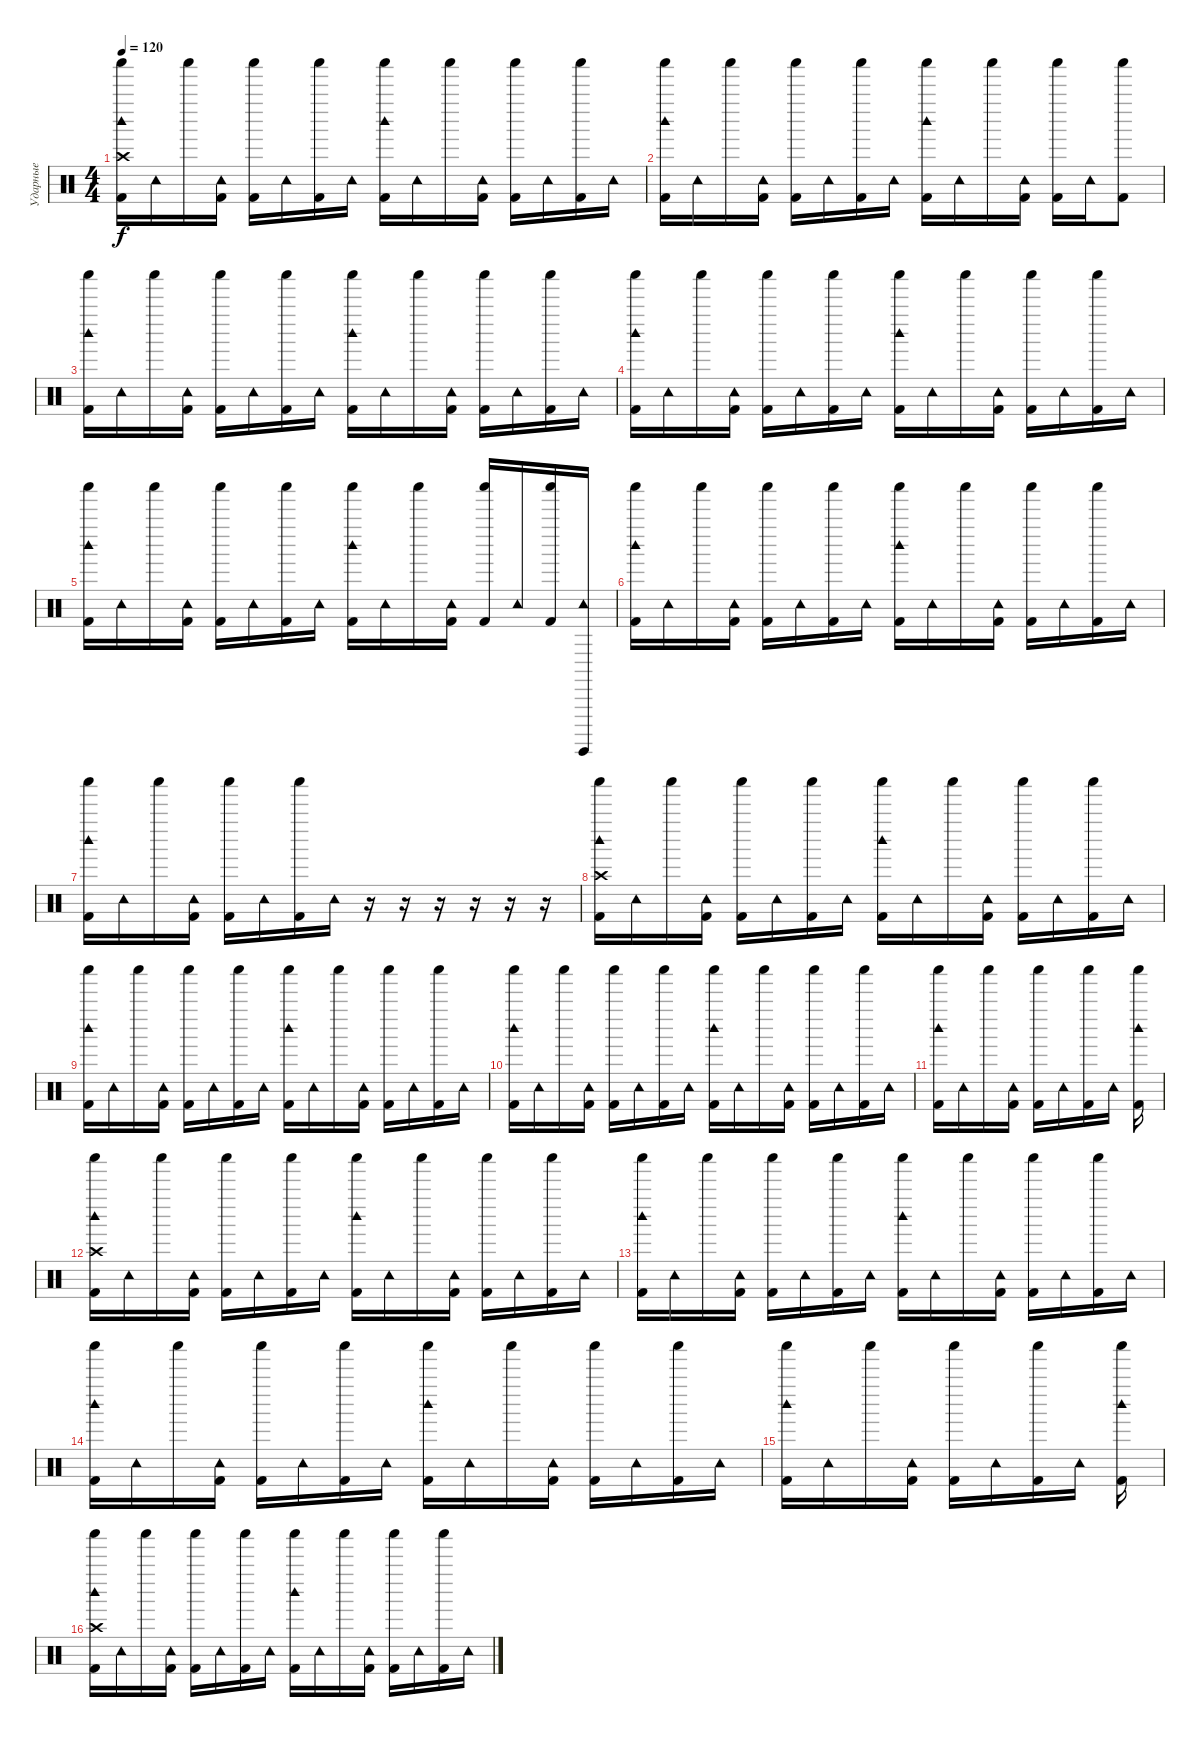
\track ("Ударные" "Ударные") {instrument percussion}
\staff {score}
\articulation defaults
\ts (4 4)
\tempo 120
\clef neutral
\ks c
("Shaker (hit)" "Kick (hit) 2" "Woodblock high (hit)" "Crash high (hit)").16{dy f} "Tambourine (hit)".16 "Shaker (hit)".16 ("Tambourine (hit)" "Kick (hit) 2").16 ("Shaker (hit)" "Kick (hit) 2").16 "Tambourine (hit)".16 ("Shaker (hit)" "Kick (hit) 2").16 "Tambourine (hit)".16 ("Shaker (hit)" "Kick (hit) 2" "Woodblock high (hit)").16 "Tambourine (hit)".16 "Shaker (hit)".16 ("Tambourine (hit)" "Kick (hit) 2").16 ("Shaker (hit)" "Kick (hit) 2").16 "Tambourine (hit)".16 ("Shaker (hit)" "Kick (hit) 2").16 "Tambourine (hit)".16 |
("Shaker (hit)" "Kick (hit) 2" "Woodblock high (hit)").16 "Tambourine (hit)".16 "Shaker (hit)".16 ("Tambourine (hit)" "Kick (hit) 2").16 ("Shaker (hit)" "Kick (hit) 2").16 "Tambourine (hit)".16 ("Shaker (hit)" "Kick (hit) 2").16 "Tambourine (hit)".16 ("Shaker (hit)" "Kick (hit) 2" "Woodblock high (hit)").16 "Tambourine (hit)".16 "Shaker (hit)".16 ("Tambourine (hit)" "Kick (hit) 2").16 ("Shaker (hit)" "Kick (hit) 2").16 "Tambourine (hit)".16 ("Shaker (hit)" "Kick (hit) 2").8 |
("Shaker (hit)" "Kick (hit) 2" "Woodblock high (hit)").16 "Tambourine (hit)".16 "Shaker (hit)".16 ("Tambourine (hit)" "Kick (hit) 2").16 ("Shaker (hit)" "Kick (hit) 2").16 "Tambourine (hit)".16 ("Shaker (hit)" "Kick (hit) 2").16 "Tambourine (hit)".16 ("Shaker (hit)" "Kick (hit) 2" "Woodblock high (hit)").16 "Tambourine (hit)".16 "Shaker (hit)".16 ("Tambourine (hit)" "Kick (hit) 2").16 ("Shaker (hit)" "Kick (hit) 2").16 "Tambourine (hit)".16 ("Shaker (hit)" "Kick (hit) 2").16 "Tambourine (hit)".16 |
("Shaker (hit)" "Kick (hit) 2" "Woodblock high (hit)").16 "Tambourine (hit)".16 "Shaker (hit)".16 ("Tambourine (hit)" "Kick (hit) 2").16 ("Shaker (hit)" "Kick (hit) 2").16 "Tambourine (hit)".16 ("Shaker (hit)" "Kick (hit) 2").16 "Tambourine (hit)".16 ("Shaker (hit)" "Kick (hit) 2" "Woodblock high (hit)").16 "Tambourine (hit)".16 "Shaker (hit)".16 ("Tambourine (hit)" "Kick (hit) 2").16 ("Shaker (hit)" "Kick (hit) 2").16 "Tambourine (hit)".16 ("Shaker (hit)" "Kick (hit) 2").16 "Tambourine (hit)".16 |
("Shaker (hit)" "Kick (hit) 2" "Woodblock high (hit)").16 "Tambourine (hit)".16 "Shaker (hit)".16 ("Tambourine (hit)" "Kick (hit) 2").16 ("Shaker (hit)" "Kick (hit) 2").16 "Tambourine (hit)".16 ("Shaker (hit)" "Kick (hit) 2").16 "Tambourine (hit)".16 ("Shaker (hit)" "Kick (hit) 2" "Woodblock high (hit)").16 "Tambourine (hit)".16 "Shaker (hit)".16 ("Tambourine (hit)" "Kick (hit) 2").16 ("Shaker (hit)" "Kick (hit) 2").16 "Tambourine (hit)".16 ("Shaker (hit)" "Kick (hit) 2").16 ("Tambourine (hit)" "Surdo (hit)").16 |
("Shaker (hit)" "Kick (hit) 2" "Woodblock high (hit)").16 "Tambourine (hit)".16 "Shaker (hit)".16 ("Tambourine (hit)" "Kick (hit) 2").16 ("Shaker (hit)" "Kick (hit) 2").16 "Tambourine (hit)".16 ("Shaker (hit)" "Kick (hit) 2").16 "Tambourine (hit)".16 ("Shaker (hit)" "Kick (hit) 2" "Woodblock high (hit)").16 "Tambourine (hit)".16 "Shaker (hit)".16 ("Tambourine (hit)" "Kick (hit) 2").16 ("Shaker (hit)" "Kick (hit) 2").16 "Tambourine (hit)".16 ("Shaker (hit)" "Kick (hit) 2").16 "Tambourine (hit)".16 |
("Shaker (hit)" "Kick (hit) 2" "Woodblock high (hit)").16 "Tambourine (hit)".16 "Shaker (hit)".16 ("Tambourine (hit)" "Kick (hit) 2").16 ("Shaker (hit)" "Kick (hit) 2").16 "Tambourine (hit)".16 ("Shaker (hit)" "Kick (hit) 2").16 "Tambourine (hit)".16 r.16 r.16 r.16 r.16 r.16 r.16 |
("Shaker (hit)" "Kick (hit) 2" "Woodblock high (hit)" "Crash high (hit)").16 "Tambourine (hit)".16 "Shaker (hit)".16 ("Tambourine (hit)" "Kick (hit) 2").16 ("Shaker (hit)" "Kick (hit) 2").16 "Tambourine (hit)".16 ("Shaker (hit)" "Kick (hit) 2").16 "Tambourine (hit)".16 ("Shaker (hit)" "Kick (hit) 2" "Woodblock high (hit)").16 "Tambourine (hit)".16 "Shaker (hit)".16 ("Tambourine (hit)" "Kick (hit) 2").16 ("Shaker (hit)" "Kick (hit) 2").16 "Tambourine (hit)".16 ("Shaker (hit)" "Kick (hit) 2").16 "Tambourine (hit)".16 |
("Shaker (hit)" "Kick (hit) 2" "Woodblock high (hit)").16 "Tambourine (hit)".16 "Shaker (hit)".16 ("Tambourine (hit)" "Kick (hit) 2").16 ("Shaker (hit)" "Kick (hit) 2").16 "Tambourine (hit)".16 ("Shaker (hit)" "Kick (hit) 2").16 "Tambourine (hit)".16 ("Shaker (hit)" "Kick (hit) 2" "Woodblock high (hit)").16 "Tambourine (hit)".16 "Shaker (hit)".16 ("Tambourine (hit)" "Kick (hit) 2").16 ("Shaker (hit)" "Kick (hit) 2").16 "Tambourine (hit)".16 ("Shaker (hit)" "Kick (hit) 2").16 "Tambourine (hit)".16 |
("Shaker (hit)" "Kick (hit) 2" "Woodblock high (hit)").16 "Tambourine (hit)".16 "Shaker (hit)".16 ("Tambourine (hit)" "Kick (hit) 2").16 ("Shaker (hit)" "Kick (hit) 2").16 "Tambourine (hit)".16 ("Shaker (hit)" "Kick (hit) 2").16 "Tambourine (hit)".16 ("Shaker (hit)" "Kick (hit) 2" "Woodblock high (hit)").16 "Tambourine (hit)".16 "Shaker (hit)".16 ("Tambourine (hit)" "Kick (hit) 2").16 ("Shaker (hit)" "Kick (hit) 2").16 "Tambourine (hit)".16 ("Shaker (hit)" "Kick (hit) 2").16 "Tambourine (hit)".16 |
("Shaker (hit)" "Kick (hit) 2" "Woodblock high (hit)").16 "Tambourine (hit)".16 "Shaker (hit)".16 ("Tambourine (hit)" "Kick (hit) 2").16 ("Shaker (hit)" "Kick (hit) 2").16 "Tambourine (hit)".16 ("Shaker (hit)" "Kick (hit) 2").16 "Tambourine (hit)".16 ("Shaker (hit)" "Kick (hit) 2" "Woodblock high (hit)").16 |
("Shaker (hit)" "Kick (hit) 2" "Woodblock high (hit)" "Crash high (hit)").16 "Tambourine (hit)".16 "Shaker (hit)".16 ("Tambourine (hit)" "Kick (hit) 2").16 ("Shaker (hit)" "Kick (hit) 2").16 "Tambourine (hit)".16 ("Shaker (hit)" "Kick (hit) 2").16 "Tambourine (hit)".16 ("Shaker (hit)" "Kick (hit) 2" "Woodblock high (hit)").16 "Tambourine (hit)".16 "Shaker (hit)".16 ("Tambourine (hit)" "Kick (hit) 2").16 ("Shaker (hit)" "Kick (hit) 2").16 "Tambourine (hit)".16 ("Shaker (hit)" "Kick (hit) 2").16 "Tambourine (hit)".16 |
("Shaker (hit)" "Kick (hit) 2" "Woodblock high (hit)").16 "Tambourine (hit)".16 "Shaker (hit)".16 ("Tambourine (hit)" "Kick (hit) 2").16 ("Shaker (hit)" "Kick (hit) 2").16 "Tambourine (hit)".16 ("Shaker (hit)" "Kick (hit) 2").16 "Tambourine (hit)".16 ("Shaker (hit)" "Kick (hit) 2" "Woodblock high (hit)").16 "Tambourine (hit)".16 "Shaker (hit)".16 ("Tambourine (hit)" "Kick (hit) 2").16 ("Shaker (hit)" "Kick (hit) 2").16 "Tambourine (hit)".16 ("Shaker (hit)" "Kick (hit) 2").16 "Tambourine (hit)".16 |
("Shaker (hit)" "Kick (hit) 2" "Woodblock high (hit)").16 "Tambourine (hit)".16 "Shaker (hit)".16 ("Tambourine (hit)" "Kick (hit) 2").16 ("Shaker (hit)" "Kick (hit) 2").16 "Tambourine (hit)".16 ("Shaker (hit)" "Kick (hit) 2").16 "Tambourine (hit)".16 ("Shaker (hit)" "Kick (hit) 2" "Woodblock high (hit)").16 "Tambourine (hit)".16 "Shaker (hit)".16 ("Tambourine (hit)" "Kick (hit) 2").16 ("Shaker (hit)" "Kick (hit) 2").16 "Tambourine (hit)".16 ("Shaker (hit)" "Kick (hit) 2").16 "Tambourine (hit)".16 |
("Shaker (hit)" "Kick (hit) 2" "Woodblock high (hit)").16 "Tambourine (hit)".16 "Shaker (hit)".16 ("Tambourine (hit)" "Kick (hit) 2").16 ("Shaker (hit)" "Kick (hit) 2").16 "Tambourine (hit)".16 ("Shaker (hit)" "Kick (hit) 2").16 "Tambourine (hit)".16 ("Shaker (hit)" "Kick (hit) 2" "Woodblock high (hit)").16 |
("Shaker (hit)" "Kick (hit) 2" "Woodblock high (hit)" "Crash high (hit)").16 "Tambourine (hit)".16 "Shaker (hit)".16 ("Tambourine (hit)" "Kick (hit) 2").16 ("Shaker (hit)" "Kick (hit) 2").16 "Tambourine (hit)".16 ("Shaker (hit)" "Kick (hit) 2").16 "Tambourine (hit)".16 ("Shaker (hit)" "Kick (hit) 2" "Woodblock high (hit)").16 "Tambourine (hit)".16 "Shaker (hit)".16 ("Tambourine (hit)" "Kick (hit) 2").16 ("Shaker (hit)" "Kick (hit) 2").16 "Tambourine (hit)".16 ("Shaker (hit)" "Kick (hit) 2").16 "Tambourine (hit)".16
